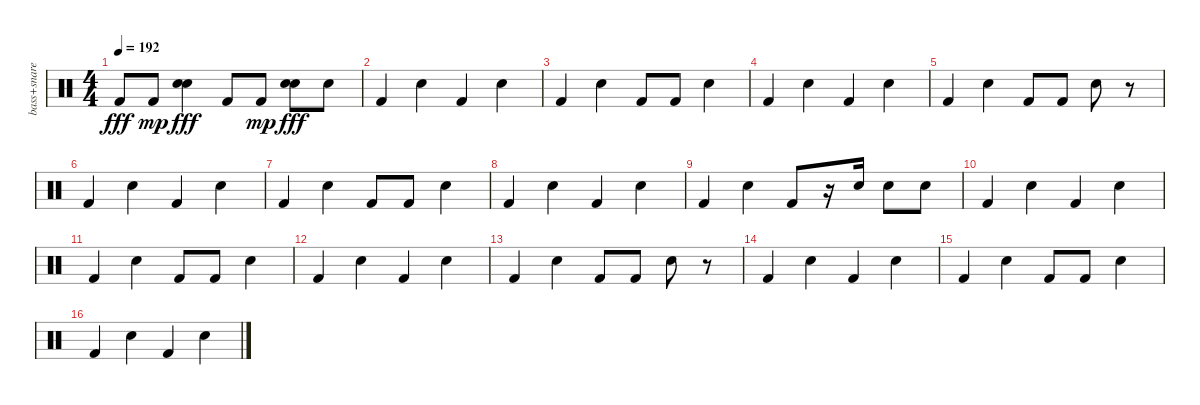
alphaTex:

\track ("bass+snare" "bass+snare") {instrument percussion}
\staff {score}
\articulation defaults
\ts (4 4)
\tempo 192
\clef neutral
\ks c "Kick (hit) 2".8{dy fff} "Kick (hit) 2".8{dy mp}
("Electric Snare (hit)" "Electric Snare (hit)").4{dy fff} "Kick (hit) 2".8 "Kick (hit) 2".8{dy mp} ("Electric Snare (hit)" "Electric Snare (hit)").8{dy fff} "Electric Snare (hit)".8 |
"Kick (hit) 2".4 "Snare (hit) 2".4 "Kick (hit) 2".4 "Snare (hit) 2".4 |
"Kick (hit) 2".4 "Snare (hit) 2".4 "Kick (hit) 2".8 "Kick (hit) 2".8 "Snare (hit) 2".4 |
"Kick (hit) 2".4 "Snare (hit) 2".4 "Kick (hit) 2".4 "Snare (hit) 2".4 |
"Kick (hit) 2".4 "Snare (hit) 2".4 "Kick (hit) 2".8 "Kick (hit) 2".8 "Snare (hit) 2".8 r.8 |
"Kick (hit) 2".4 "Snare (hit) 2".4 "Kick (hit) 2".4 "Snare (hit) 2".4 |
"Kick (hit) 2".4 "Snare (hit) 2".4 "Kick (hit) 2".8 "Kick (hit) 2".8 "Snare (hit) 2".4 |
"Kick (hit) 2".4 "Snare (hit) 2".4 "Kick (hit) 2".4 "Snare (hit) 2".4 |
"Kick (hit) 2".4 "Snare (hit) 2".4 "Kick (hit) 2".8 r.16 "Snare (hit) 2".16 "Snare (hit) 2".8 "Snare (hit) 2".8 |
"Kick (hit) 2".4 "Snare (hit) 2".4 "Kick (hit) 2".4 "Snare (hit) 2".4 |
"Kick (hit) 2".4 "Snare (hit) 2".4 "Kick (hit) 2".8 "Kick (hit) 2".8 "Snare (hit) 2".4 |
"Kick (hit) 2".4 "Snare (hit) 2".4 "Kick (hit) 2".4 "Snare (hit) 2".4 |
"Kick (hit) 2".4 "Snare (hit) 2".4 "Kick (hit) 2".8 "Kick (hit) 2".8 "Snare (hit) 2".8 r.8 |
"Kick (hit) 2".4 "Snare (hit) 2".4 "Kick (hit) 2".4 "Snare (hit) 2".4 |
"Kick (hit) 2".4 "Snare (hit) 2".4 "Kick (hit) 2".8 "Kick (hit) 2".8 "Snare (hit) 2".4 |
"Kick (hit) 2".4 "Snare (hit) 2".4 "Kick (hit) 2".4 "Snare (hit) 2".4
